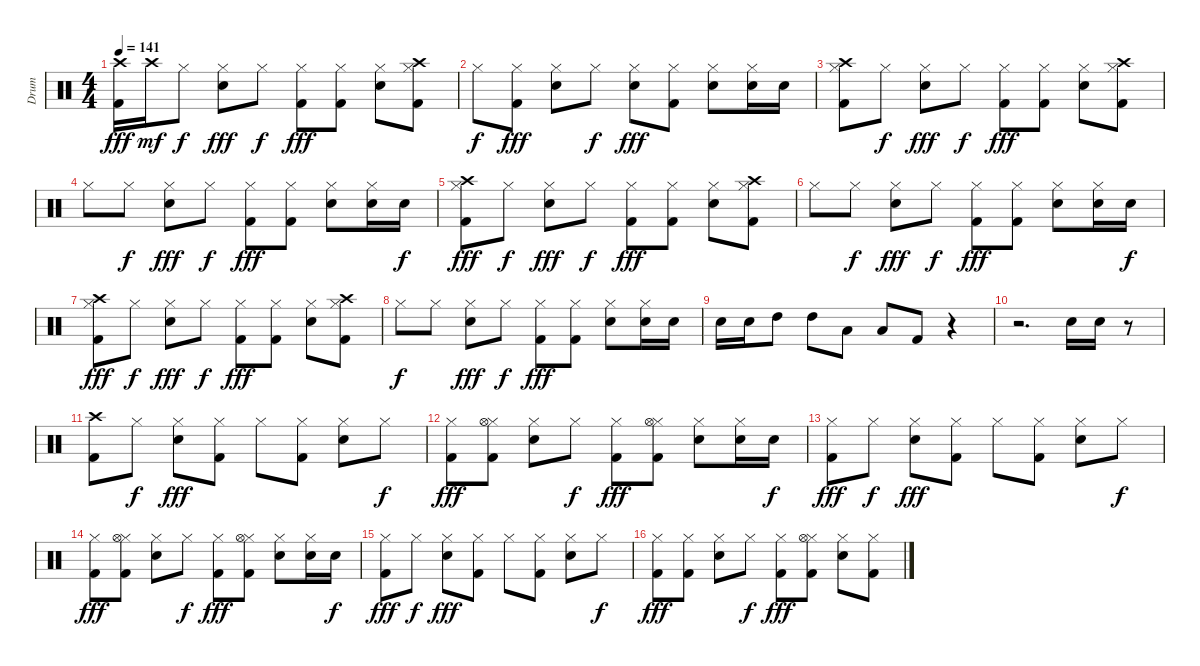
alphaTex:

\track ("Drum" "Drum") {instrument percussion}
\staff {score}
\articulation defaults
\ts (4 4)
\tempo 141
\clef neutral
\ks c
("Crash high (hit)" "Kick (hit) 2").16{dy fff} "Crash high (hit)".16{dy mf} "Hi-Hat (closed)".8{dy f} ("Hi-Hat (closed)" "Snare (hit) 2").8{dy fff} "Hi-Hat (closed)".8{dy f} ("Hi-Hat (closed)" "Kick (hit) 2").8{dy fff} ("Hi-Hat (closed)" "Kick (hit) 2").8 ("Hi-Hat (closed)" "Snare (hit) 2").8 ("Hi-Hat (closed)" "Kick (hit) 2" "Crash high (hit)").8 |
"Hi-Hat (closed)".8{dy f} ("Kick (hit) 2" "Hi-Hat (closed)").8{dy fff} ("Snare (hit) 2" "Hi-Hat (closed)").8 "Hi-Hat (closed)".8{dy f} ("Snare (hit) 2" "Hi-Hat (closed)").8{dy fff} ("Kick (hit) 2" "Hi-Hat (closed)").8 ("Snare (hit) 2" "Hi-Hat (closed)").8 ("Snare (hit) 2" "Hi-Hat (closed)").16 "Snare (hit) 2".16 |
("Kick (hit) 2" "Hi-Hat (closed)" "Crash high (hit)").8 "Hi-Hat (closed)".8{dy f} ("Snare (hit) 2" "Hi-Hat (closed)").8{dy fff} "Hi-Hat (closed)".8{dy f} ("Kick (hit) 2" "Hi-Hat (closed)").8{dy fff} ("Kick (hit) 2" "Hi-Hat (closed)").8 ("Snare (hit) 2" "Hi-Hat (closed)").8 ("Kick (hit) 2" "Hi-Hat (closed)" "Crash high (hit)").8 |
"Hi-Hat (closed)".8 "Hi-Hat (closed)".8{dy f} ("Hi-Hat (closed)" "Snare (hit) 2").8{dy fff} "Hi-Hat (closed)".8{dy f} ("Hi-Hat (closed)" "Kick (hit) 2").8{dy fff} ("Hi-Hat (closed)" "Kick (hit) 2").8 ("Hi-Hat (closed)" "Snare (hit) 2").8 ("Hi-Hat (closed)" "Snare (hit) 2").16 "Snare (hit) 2".16{dy f} |
("Kick (hit) 2" "Hi-Hat (closed)" "Crash high (hit)").8{dy fff} "Hi-Hat (closed)".8{dy f} ("Snare (hit) 2" "Hi-Hat (closed)").8{dy fff} "Hi-Hat (closed)".8{dy f} ("Kick (hit) 2" "Hi-Hat (closed)").8{dy fff} ("Kick (hit) 2" "Hi-Hat (closed)").8 ("Snare (hit) 2" "Hi-Hat (closed)").8 ("Kick (hit) 2" "Hi-Hat (closed)" "Crash high (hit)").8 |
"Hi-Hat (closed)".8 "Hi-Hat (closed)".8{dy f} ("Hi-Hat (closed)" "Snare (hit) 2").8{dy fff} "Hi-Hat (closed)".8{dy f} ("Hi-Hat (closed)" "Kick (hit) 2").8{dy fff} ("Hi-Hat (closed)" "Kick (hit) 2").8 ("Hi-Hat (closed)" "Snare (hit) 2").8 ("Hi-Hat (closed)" "Snare (hit) 2").16 "Snare (hit) 2".16{dy f} |
("Kick (hit) 2" "Hi-Hat (closed)" "Crash high (hit)").8{dy fff} "Hi-Hat (closed)".8{dy f} ("Snare (hit) 2" "Hi-Hat (closed)").8{dy fff} "Hi-Hat (closed)".8{dy f} ("Kick (hit) 2" "Hi-Hat (closed)").8{dy fff} ("Kick (hit) 2" "Hi-Hat (closed)").8 ("Snare (hit) 2" "Hi-Hat (closed)").8 ("Kick (hit) 2" "Hi-Hat (closed)" "Crash high (hit)").8 |
"Hi-Hat (closed)".8{dy f} "Hi-Hat (closed)".8 ("Snare (hit) 2" "Hi-Hat (closed)").8{dy fff} "Hi-Hat (closed)".8{dy f} ("Kick (hit) 2" "Hi-Hat (closed)").8{dy fff} ("Kick (hit) 2" "Hi-Hat (closed)").8 ("Snare (hit) 2" "Hi-Hat (closed)").8 ("Snare (hit) 2" "Hi-Hat (closed)").16 "Snare (hit) 2".16 |
"Snare (hit) 2".16 "Snare (hit) 2".16 "High Tom (hit)".8 "High Tom (hit)".8 "Low Tom (hit)".8 "Low Floor Tom (hit)".8 "Kick (hit) 2".8 r.4 |
r.2{d} "Snare (hit) 2".16 "Snare (hit) 2".16 r.8 |
("Crash high (hit)" "Kick (hit) 2").8 "Hi-Hat (closed)".8{dy f} ("Hi-Hat (closed)" "Snare (hit) 2").8{dy fff} ("Hi-Hat (closed)" "Kick (hit) 2").8 "Hi-Hat (closed)".8 ("Hi-Hat (closed)" "Kick (hit) 2").8 ("Hi-Hat (closed)" "Snare (hit) 2").8 "Hi-Hat (closed)".8{dy f} |
("Hi-Hat (closed)" "Kick (hit) 2").8{dy fff} ("Hi-Hat (closed)" "Kick (hit) 2" "Hi-Hat (open)").8 ("Hi-Hat (closed)" "Snare (hit) 2").8 "Hi-Hat (closed)".8{dy f} ("Hi-Hat (closed)" "Kick (hit) 2").8{dy fff} ("Hi-Hat (closed)" "Kick (hit) 2" "Hi-Hat (open)").8 ("Hi-Hat (closed)" "Snare (hit) 2").8 ("Hi-Hat (closed)" "Snare (hit) 2").16 "Snare (hit) 2".16{dy f} |
("Hi-Hat (closed)" "Kick (hit) 2").8{dy fff} "Hi-Hat (closed)".8{dy f} ("Hi-Hat (closed)" "Snare (hit) 2").8{dy fff} ("Hi-Hat (closed)" "Kick (hit) 2").8 "Hi-Hat (closed)".8 ("Hi-Hat (closed)" "Kick (hit) 2").8 ("Hi-Hat (closed)" "Snare (hit) 2").8 "Hi-Hat (closed)".8{dy f} |
("Hi-Hat (closed)" "Kick (hit) 2").8{dy fff} ("Hi-Hat (closed)" "Kick (hit) 2" "Hi-Hat (open)").8 ("Hi-Hat (closed)" "Snare (hit) 2").8 "Hi-Hat (closed)".8{dy f} ("Hi-Hat (closed)" "Kick (hit) 2").8{dy fff} ("Hi-Hat (closed)" "Kick (hit) 2" "Hi-Hat (open)").8 ("Hi-Hat (closed)" "Snare (hit) 2").8 ("Hi-Hat (closed)" "Snare (hit) 2").16 "Snare (hit) 2".16{dy f} |
("Hi-Hat (closed)" "Kick (hit) 2").8{dy fff} "Hi-Hat (closed)".8{dy f} ("Hi-Hat (closed)" "Snare (hit) 2").8{dy fff} ("Hi-Hat (closed)" "Kick (hit) 2").8 "Hi-Hat (closed)".8 ("Hi-Hat (closed)" "Kick (hit) 2").8 ("Hi-Hat (closed)" "Snare (hit) 2").8 "Hi-Hat (closed)".8{dy f} |
("Kick (hit) 2" "Hi-Hat (closed)").8{dy fff} ("Kick (hit) 2" "Hi-Hat (closed)").8 ("Snare (hit) 2" "Hi-Hat (closed)").8 "Hi-Hat (closed)".8{dy f} ("Kick (hit) 2" "Hi-Hat (closed)").8{dy fff} ("Kick (hit) 2" "Hi-Hat (closed)" "Hi-Hat (open)").8 ("Snare (hit) 2" "Hi-Hat (closed)").8 ("Kick (hit) 2" "Hi-Hat (closed)").8
